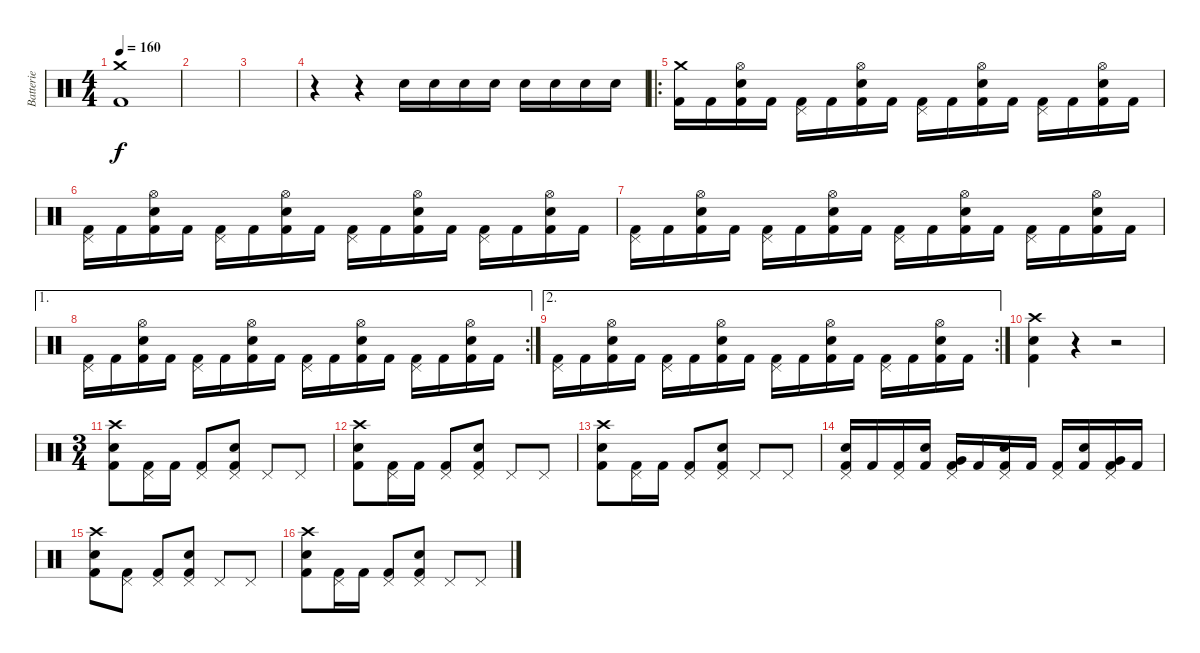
\track ("Batterie" "Batterie") {instrument percussion}
\staff {score}
\articulation defaults
\ts (4 4)
\tempo 160
\clef neutral
\ks c
("Crash medium (hit)" "Kick (hit) 2").1{dy f} |
|
|
r.4 r.4 "Electric Snare (hit)".16 "Electric Snare (hit)".16 "Electric Snare (hit)".16 "Electric Snare (hit)".16 "Electric Snare (hit)".16 "Electric Snare (hit)".16 "Electric Snare (hit)".16 "Electric Snare (hit)".16 |
\ro
("Crash medium (hit)" "Kick (hit) 2").16 "Kick (hit) 2".16 ("Hi-Hat (open)" "Electric Snare (hit)" "Kick (hit) 2").16 "Kick (hit) 2".16 ("Pedal Hi-Hat (hit)" "Kick (hit) 2").16 "Kick (hit) 2".16 ("Hi-Hat (open)" "Electric Snare (hit)" "Kick (hit) 2").16 "Kick (hit) 2".16 ("Pedal Hi-Hat (hit)" "Kick (hit) 2").16 "Kick (hit) 2".16 ("Hi-Hat (open)" "Electric Snare (hit)" "Kick (hit) 2").16 "Kick (hit) 2".16 ("Pedal Hi-Hat (hit)" "Kick (hit) 2").16 "Kick (hit) 2".16 ("Hi-Hat (open)" "Electric Snare (hit)" "Kick (hit) 2").16 "Kick (hit) 2".16 |
("Pedal Hi-Hat (hit)" "Kick (hit) 2").16 "Kick (hit) 2".16 ("Hi-Hat (open)" "Electric Snare (hit)" "Kick (hit) 2").16 "Kick (hit) 2".16 ("Pedal Hi-Hat (hit)" "Kick (hit) 2").16 "Kick (hit) 2".16 ("Hi-Hat (open)" "Electric Snare (hit)" "Kick (hit) 2").16 "Kick (hit) 2".16 ("Pedal Hi-Hat (hit)" "Kick (hit) 2").16 "Kick (hit) 2".16 ("Hi-Hat (open)" "Electric Snare (hit)" "Kick (hit) 2").16 "Kick (hit) 2".16 ("Pedal Hi-Hat (hit)" "Kick (hit) 2").16 "Kick (hit) 2".16 ("Hi-Hat (open)" "Electric Snare (hit)" "Kick (hit) 2").16 "Kick (hit) 2".16 |
("Pedal Hi-Hat (hit)" "Kick (hit) 2").16 "Kick (hit) 2".16 ("Hi-Hat (open)" "Electric Snare (hit)" "Kick (hit) 2").16 "Kick (hit) 2".16 ("Pedal Hi-Hat (hit)" "Kick (hit) 2").16 "Kick (hit) 2".16 ("Hi-Hat (open)" "Electric Snare (hit)" "Kick (hit) 2").16 "Kick (hit) 2".16 ("Pedal Hi-Hat (hit)" "Kick (hit) 2").16 "Kick (hit) 2".16 ("Hi-Hat (open)" "Electric Snare (hit)" "Kick (hit) 2").16 "Kick (hit) 2".16 ("Pedal Hi-Hat (hit)" "Kick (hit) 2").16 "Kick (hit) 2".16 ("Hi-Hat (open)" "Electric Snare (hit)" "Kick (hit) 2").16 "Kick (hit) 2".16 |
\ae 1
\rc 2
("Pedal Hi-Hat (hit)" "Kick (hit) 2").16 "Kick (hit) 2".16 ("Hi-Hat (open)" "Electric Snare (hit)" "Kick (hit) 2").16 "Kick (hit) 2".16 ("Pedal Hi-Hat (hit)" "Kick (hit) 2").16 "Kick (hit) 2".16 ("Hi-Hat (open)" "Electric Snare (hit)" "Kick (hit) 2").16 "Kick (hit) 2".16 ("Pedal Hi-Hat (hit)" "Kick (hit) 2").16 "Kick (hit) 2".16 ("Hi-Hat (open)" "Electric Snare (hit)" "Kick (hit) 2").16 "Kick (hit) 2".16 ("Pedal Hi-Hat (hit)" "Kick (hit) 2").16 "Kick (hit) 2".16 ("Hi-Hat (open)" "Electric Snare (hit)" "Kick (hit) 2").16 "Kick (hit) 2".16 |
\ae 2
\rc 2
("Pedal Hi-Hat (hit)" "Kick (hit) 2").16 "Kick (hit) 2".16 ("Hi-Hat (open)" "Electric Snare (hit)" "Kick (hit) 2").16 "Kick (hit) 2".16 ("Pedal Hi-Hat (hit)" "Kick (hit) 2").16 "Kick (hit) 2".16 ("Hi-Hat (open)" "Electric Snare (hit)" "Kick (hit) 2").16 "Kick (hit) 2".16 ("Pedal Hi-Hat (hit)" "Kick (hit) 2").16 "Kick (hit) 2".16 ("Hi-Hat (open)" "Electric Snare (hit)" "Kick (hit) 2").16 "Kick (hit) 2".16 ("Pedal Hi-Hat (hit)" "Kick (hit) 2").16 "Kick (hit) 2".16 ("Hi-Hat (open)" "Electric Snare (hit)" "Kick (hit) 2").16 "Kick (hit) 2".16 |
("Crash high (hit)" "Electric Snare (hit)" "Kick (hit) 2").4 r.4 r.2 |
\ts (3 4)
("Crash high (hit)" "Electric Snare (hit)" "Kick (hit) 2").8 ("Pedal Hi-Hat (hit)" "Kick (hit) 2").16 "Kick (hit) 2".16 ("Pedal Hi-Hat (hit)" "Kick (hit) 2").8 ("Pedal Hi-Hat (hit)" "Kick (hit) 2" "Electric Snare (hit)").8 "Pedal Hi-Hat (hit)".8 "Pedal Hi-Hat (hit)".8 |
("Crash high (hit)" "Electric Snare (hit)" "Kick (hit) 2").8 ("Pedal Hi-Hat (hit)" "Kick (hit) 2").16 "Kick (hit) 2".16 ("Pedal Hi-Hat (hit)" "Kick (hit) 2").8 ("Pedal Hi-Hat (hit)" "Kick (hit) 2" "Electric Snare (hit)").8 "Pedal Hi-Hat (hit)".8 "Pedal Hi-Hat (hit)".8 |
("Crash high (hit)" "Electric Snare (hit)" "Kick (hit) 2").8 ("Pedal Hi-Hat (hit)" "Kick (hit) 2").16 "Kick (hit) 2".16 ("Pedal Hi-Hat (hit)" "Kick (hit) 2").8 ("Pedal Hi-Hat (hit)" "Kick (hit) 2" "Electric Snare (hit)").8 "Pedal Hi-Hat (hit)".8 "Pedal Hi-Hat (hit)".8 |
("Pedal Hi-Hat (hit)" "Electric Snare (hit)" "Kick (hit) 2").16 "Kick (hit) 2".16 ("Pedal Hi-Hat (hit)" "Kick (hit) 2").16 ("Electric Snare (hit)" "Kick (hit) 2").16 ("Pedal Hi-Hat (hit)" "Very Low Tom (hit)" "Kick (hit) 2").16 "Kick (hit) 2".16 ("Pedal Hi-Hat (hit)" "Electric Snare (hit)" "Kick (hit) 2").16 "Kick (hit) 2".16 ("Pedal Hi-Hat (hit)" "Kick (hit) 2").16 ("Electric Snare (hit)" "Kick (hit) 2").16 ("Pedal Hi-Hat (hit)" "Very Low Tom (hit)" "Kick (hit) 2").16 "Kick (hit) 2".16 |
("Crash high (hit)" "Electric Snare (hit)" "Kick (hit) 2").8 ("Pedal Hi-Hat (hit)" "Kick (hit) 2").8 ("Pedal Hi-Hat (hit)" "Kick (hit) 2").8 ("Pedal Hi-Hat (hit)" "Kick (hit) 2" "Electric Snare (hit)").8 "Pedal Hi-Hat (hit)".8 "Pedal Hi-Hat (hit)".8 |
("Crash high (hit)" "Electric Snare (hit)" "Kick (hit) 2").8 ("Pedal Hi-Hat (hit)" "Kick (hit) 2").16 "Kick (hit) 2".16 ("Pedal Hi-Hat (hit)" "Kick (hit) 2").8 ("Pedal Hi-Hat (hit)" "Kick (hit) 2" "Electric Snare (hit)").8 "Pedal Hi-Hat (hit)".8 "Pedal Hi-Hat (hit)".8
